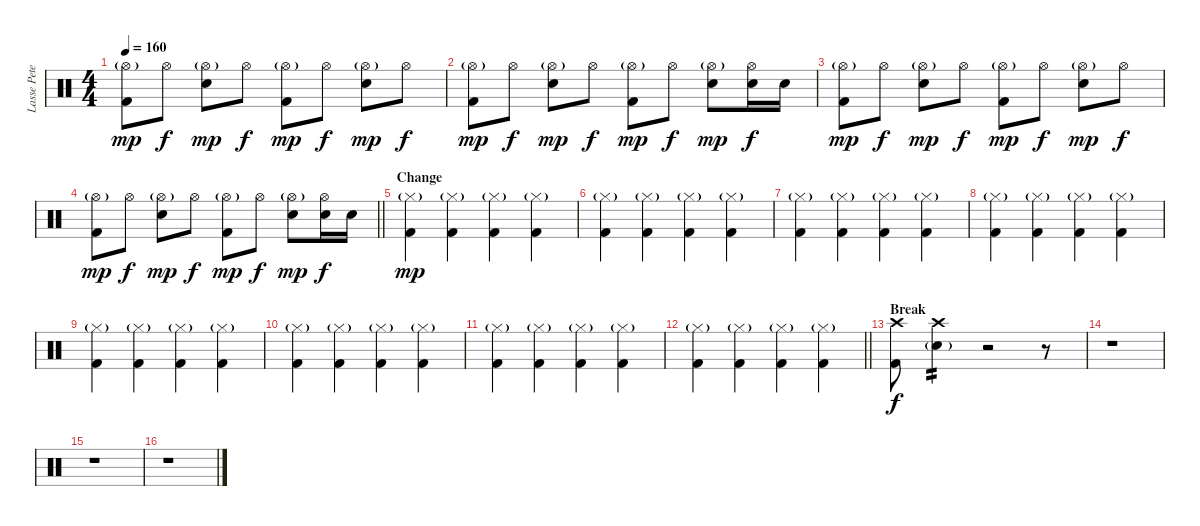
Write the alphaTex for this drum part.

\track ("Lasse Petersen - Drums" "Lasse Pete") {instrument percussion}
\staff {score}
\articulation defaults
\ts (4 4)
\tempo 160
\clef neutral
\ks c
("Kick (hit) 2" "Hi-Hat (open)"{g}).8{dy mp} "Hi-Hat (open)".8{dy f} ("Electric Snare (hit)" "Hi-Hat (open)"{g}).8{dy mp} "Hi-Hat (open)".8{dy f} ("Kick (hit) 2" "Hi-Hat (open)"{g}).8{dy mp} "Hi-Hat (open)".8{dy f} ("Electric Snare (hit)" "Hi-Hat (open)"{g}).8{dy mp} "Hi-Hat (open)".8{dy f} |
("Kick (hit) 2" "Hi-Hat (open)"{g}).8{dy mp} "Hi-Hat (open)".8{dy f} ("Electric Snare (hit)" "Hi-Hat (open)"{g}).8{dy mp} "Hi-Hat (open)".8{dy f} ("Kick (hit) 2" "Hi-Hat (open)"{g}).8{dy mp} "Hi-Hat (open)".8{dy f} ("Electric Snare (hit)" "Hi-Hat (open)"{g}).8{dy mp} ("Electric Snare (hit)" "Hi-Hat (open)").16{dy f} "Electric Snare (hit)".16 |
("Kick (hit) 2" "Hi-Hat (open)"{g}).8{dy mp} "Hi-Hat (open)".8{dy f} ("Electric Snare (hit)" "Hi-Hat (open)"{g}).8{dy mp} "Hi-Hat (open)".8{dy f} ("Kick (hit) 2" "Hi-Hat (open)"{g}).8{dy mp} "Hi-Hat (open)".8{dy f} ("Electric Snare (hit)" "Hi-Hat (open)"{g}).8{dy mp} "Hi-Hat (open)".8{dy f} |
\barLineRight lightlight
("Kick (hit) 2" "Hi-Hat (open)"{g}).8{dy mp} "Hi-Hat (open)".8{dy f} ("Electric Snare (hit)" "Hi-Hat (open)"{g}).8{dy mp} "Hi-Hat (open)".8{dy f} ("Kick (hit) 2" "Hi-Hat (open)"{g}).8{dy mp} "Hi-Hat (open)".8{dy f} ("Electric Snare (hit)" "Hi-Hat (open)"{g}).8{dy mp} ("Electric Snare (hit)" "Hi-Hat (open)").16{dy f} "Electric Snare (hit)".16 |
\section ("" "Change")
("Kick (hit) 2" "Hi-Hat (closed)"{g}).4{dy mp} ("Kick (hit) 2" "Hi-Hat (closed)"{g}).4 ("Kick (hit) 2" "Hi-Hat (closed)"{g}).4 ("Kick (hit) 2" "Hi-Hat (closed)"{g}).4 |
("Kick (hit) 2" "Hi-Hat (closed)"{g}).4 ("Kick (hit) 2" "Hi-Hat (closed)"{g}).4 ("Kick (hit) 2" "Hi-Hat (closed)"{g}).4 ("Kick (hit) 2" "Hi-Hat (closed)"{g}).4 |
("Kick (hit) 2" "Hi-Hat (closed)"{g}).4 ("Kick (hit) 2" "Hi-Hat (closed)"{g}).4 ("Kick (hit) 2" "Hi-Hat (closed)"{g}).4 ("Kick (hit) 2" "Hi-Hat (closed)"{g}).4 |
("Kick (hit) 2" "Hi-Hat (closed)"{g}).4 ("Kick (hit) 2" "Hi-Hat (closed)"{g}).4 ("Kick (hit) 2" "Hi-Hat (closed)"{g}).4 ("Kick (hit) 2" "Hi-Hat (closed)"{g}).4 |
("Kick (hit) 2" "Hi-Hat (closed)"{g}).4 ("Kick (hit) 2" "Hi-Hat (closed)"{g}).4 ("Kick (hit) 2" "Hi-Hat (closed)"{g}).4 ("Kick (hit) 2" "Hi-Hat (closed)"{g}).4 |
("Kick (hit) 2" "Hi-Hat (closed)"{g}).4 ("Kick (hit) 2" "Hi-Hat (closed)"{g}).4 ("Kick (hit) 2" "Hi-Hat (closed)"{g}).4 ("Kick (hit) 2" "Hi-Hat (closed)"{g}).4 |
("Kick (hit) 2" "Hi-Hat (closed)"{g}).4 ("Kick (hit) 2" "Hi-Hat (closed)"{g}).4 ("Kick (hit) 2" "Hi-Hat (closed)"{g}).4 ("Kick (hit) 2" "Hi-Hat (closed)"{g}).4 |
\barLineRight lightlight
("Kick (hit) 2" "Hi-Hat (closed)"{g}).4 ("Kick (hit) 2" "Hi-Hat (closed)"{g}).4 ("Kick (hit) 2" "Hi-Hat (closed)"{g}).4 ("Kick (hit) 2" "Hi-Hat (closed)"{g}).4 |
\section ("" "Break")
("Kick (hit) 2" "Crash high (hit)").8{dy f} ("Electric Snare (hit)"{g} "Crash high (hit)").4{tp 2} r.2 r.8 |
r.1 |
r.1 |
r.1
